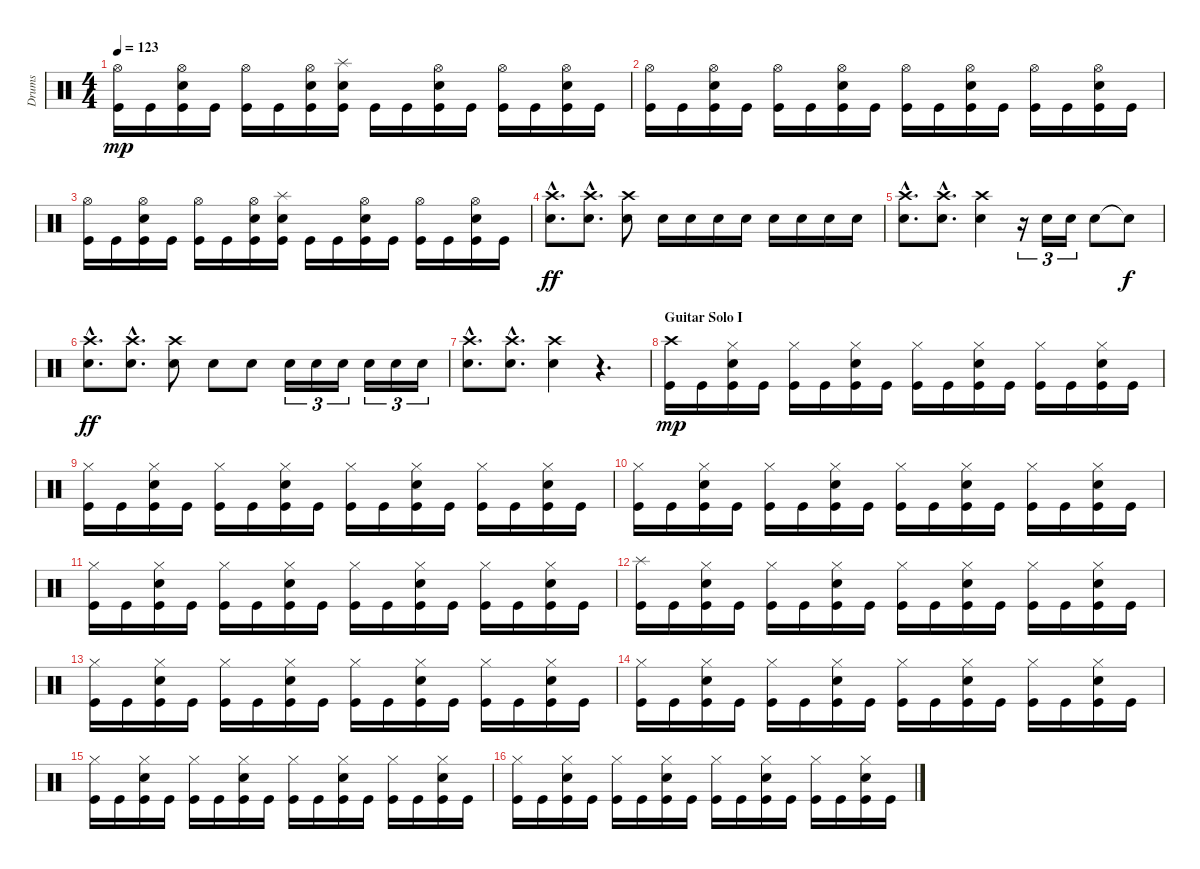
\track ("Drums" "Drums") {instrument percussion}
\staff {score}
\articulation defaults
\ts (4 4)
\tempo 123
\clef neutral
\ks c
("Hi-Hat (open)" "Kick (hit)").16{dy mp} "Kick (hit)".16 ("Hi-Hat (open)" "Electric Snare (hit)" "Kick (hit)").16 "Kick (hit)".16 ("Hi-Hat (open)" "Kick (hit)").16 "Kick (hit)".16 ("Hi-Hat (open)" "Electric Snare (hit)" "Kick (hit)").16 ("Splash (hit)" "Electric Snare (hit)" "Kick (hit)").16 "Kick (hit)".16 "Kick (hit)".16 ("Hi-Hat (open)" "Electric Snare (hit)" "Kick (hit)").16 "Kick (hit)".16 ("Hi-Hat (open)" "Kick (hit)").16 "Kick (hit)".16 ("Hi-Hat (open)" "Electric Snare (hit)" "Kick (hit)").16 "Kick (hit)".16 |
("Hi-Hat (open)" "Kick (hit)").16 "Kick (hit)".16 ("Hi-Hat (open)" "Electric Snare (hit)" "Kick (hit)").16 "Kick (hit)".16 ("Hi-Hat (open)" "Kick (hit)").16 "Kick (hit)".16 ("Hi-Hat (open)" "Electric Snare (hit)" "Kick (hit)").16 "Kick (hit)".16 ("Hi-Hat (open)" "Kick (hit)").16 "Kick (hit)".16 ("Hi-Hat (open)" "Electric Snare (hit)" "Kick (hit)").16 "Kick (hit)".16 ("Hi-Hat (open)" "Kick (hit)").16 "Kick (hit)".16 ("Hi-Hat (open)" "Electric Snare (hit)" "Kick (hit)").16 "Kick (hit)".16 |
("Hi-Hat (open)" "Kick (hit)").16 "Kick (hit)".16 ("Hi-Hat (open)" "Electric Snare (hit)" "Kick (hit)").16 "Kick (hit)".16 ("Hi-Hat (open)" "Kick (hit)").16 "Kick (hit)".16 ("Hi-Hat (open)" "Electric Snare (hit)" "Kick (hit)").16 ("Splash (hit)" "Electric Snare (hit)" "Kick (hit)").16 "Kick (hit)".16 "Kick (hit)".16 ("Hi-Hat (open)" "Electric Snare (hit)" "Kick (hit)").16 "Kick (hit)".16 ("Hi-Hat (open)" "Kick (hit)").16 "Kick (hit)".16 ("Hi-Hat (open)" "Electric Snare (hit)" "Kick (hit)").16 "Kick (hit)".16 |
("Crash high (hit)"{hac} "Electric Snare (hit)"{hac}).8{d dy ff} ("Crash high (hit)"{hac} "Electric Snare (hit)"{hac}).8{d} ("Crash high (hit)" "Electric Snare (hit)").8 "Electric Snare (hit)".16 "Electric Snare (hit)".16 "Electric Snare (hit)".16 "Electric Snare (hit)".16 "Snare (hit) 2".16 "Snare (hit) 2".16 "Snare (hit) 2".16 "Snare (hit) 2".16 |
("Crash high (hit)"{hac} "Electric Snare (hit)"{hac}).8{d} ("Crash high (hit)"{hac} "Electric Snare (hit)"{hac}).8{d} ("Crash high (hit)" "Electric Snare (hit)").4 r.16{tu (3 2)} "Snare (hit) 2".16{tu (3 2)} "Snare (hit) 2".16{tu (3 2)} "Electric Snare (hit)".8 "Snare (hit)"{t}.8{dy f} |
("Crash high (hit)"{hac} "Electric Snare (hit)"{hac}).8{d dy ff} ("Crash high (hit)"{hac} "Electric Snare (hit)"{hac}).8{d} ("Crash high (hit)" "Electric Snare (hit)").8 "Electric Snare (hit)".8 "Electric Snare (hit)".8 "Snare (hit) 2".16{tu (3 2)} "Snare (hit) 2".16{tu (3 2)} "Snare (hit) 2".16{tu (3 2)} "Snare (hit) 2".16{tu (3 2)} "Snare (hit) 2".16{tu (3 2)} "Snare (hit) 2".16{tu (3 2)} |
("Crash high (hit)"{hac} "Electric Snare (hit)"{hac}).8{d} ("Crash high (hit)"{hac} "Electric Snare (hit)"{hac}).8{d} ("Crash high (hit)" "Electric Snare (hit)").4 r.4{d} |
\section ("" "Guitar Solo I")
("Crash high (hit)" "Kick (hit)").16{dy mp} "Kick (hit)".16 ("Hi-Hat (closed)" "Electric Snare (hit)" "Kick (hit)").16 "Kick (hit)".16 ("Hi-Hat (closed)" "Kick (hit)").16 "Kick (hit)".16 ("Hi-Hat (closed)" "Electric Snare (hit)" "Kick (hit)").16 "Kick (hit)".16 ("Hi-Hat (closed)" "Kick (hit)").16 "Kick (hit)".16 ("Hi-Hat (closed)" "Electric Snare (hit)" "Kick (hit)").16 "Kick (hit)".16 ("Hi-Hat (closed)" "Kick (hit)").16 "Kick (hit)".16 ("Hi-Hat (closed)" "Electric Snare (hit)" "Kick (hit)").16 "Kick (hit)".16 |
("Hi-Hat (closed)" "Kick (hit)").16 "Kick (hit)".16 ("Hi-Hat (closed)" "Electric Snare (hit)" "Kick (hit)").16 "Kick (hit)".16 ("Hi-Hat (closed)" "Kick (hit)").16 "Kick (hit)".16 ("Hi-Hat (closed)" "Electric Snare (hit)" "Kick (hit)").16 "Kick (hit)".16 ("Hi-Hat (closed)" "Kick (hit)").16 "Kick (hit)".16 ("Hi-Hat (closed)" "Electric Snare (hit)" "Kick (hit)").16 "Kick (hit)".16 ("Hi-Hat (closed)" "Kick (hit)").16 "Kick (hit)".16 ("Hi-Hat (closed)" "Electric Snare (hit)" "Kick (hit)").16 "Kick (hit)".16 |
("Hi-Hat (closed)" "Kick (hit)").16 "Kick (hit)".16 ("Hi-Hat (closed)" "Electric Snare (hit)" "Kick (hit)").16 "Kick (hit)".16 ("Hi-Hat (closed)" "Kick (hit)").16 "Kick (hit)".16 ("Hi-Hat (closed)" "Electric Snare (hit)" "Kick (hit)").16 "Kick (hit)".16 ("Hi-Hat (closed)" "Kick (hit)").16 "Kick (hit)".16 ("Hi-Hat (closed)" "Electric Snare (hit)" "Kick (hit)").16 "Kick (hit)".16 ("Hi-Hat (closed)" "Kick (hit)").16 "Kick (hit)".16 ("Hi-Hat (closed)" "Electric Snare (hit)" "Kick (hit)").16 "Kick (hit)".16 |
("Hi-Hat (closed)" "Kick (hit)").16 "Kick (hit)".16 ("Hi-Hat (closed)" "Electric Snare (hit)" "Kick (hit)").16 "Kick (hit)".16 ("Hi-Hat (closed)" "Kick (hit)").16 "Kick (hit)".16 ("Hi-Hat (closed)" "Electric Snare (hit)" "Kick (hit)").16 "Kick (hit)".16 ("Hi-Hat (closed)" "Kick (hit)").16 "Kick (hit)".16 ("Hi-Hat (closed)" "Electric Snare (hit)" "Kick (hit)").16 "Kick (hit)".16 ("Hi-Hat (closed)" "Kick (hit)").16 "Kick (hit)".16 ("Hi-Hat (closed)" "Electric Snare (hit)" "Kick (hit)").16 "Kick (hit)".16 |
("Splash (hit)" "Kick (hit)").16 "Kick (hit)".16 ("Hi-Hat (closed)" "Electric Snare (hit)" "Kick (hit)").16 "Kick (hit)".16 ("Hi-Hat (closed)" "Kick (hit)").16 "Kick (hit)".16 ("Hi-Hat (closed)" "Electric Snare (hit)" "Kick (hit)").16 "Kick (hit)".16 ("Hi-Hat (closed)" "Kick (hit)").16 "Kick (hit)".16 ("Hi-Hat (closed)" "Electric Snare (hit)" "Kick (hit)").16 "Kick (hit)".16 ("Hi-Hat (closed)" "Kick (hit)").16 "Kick (hit)".16 ("Hi-Hat (closed)" "Electric Snare (hit)" "Kick (hit)").16 "Kick (hit)".16 |
("Hi-Hat (closed)" "Kick (hit)").16 "Kick (hit)".16 ("Hi-Hat (closed)" "Electric Snare (hit)" "Kick (hit)").16 "Kick (hit)".16 ("Hi-Hat (closed)" "Kick (hit)").16 "Kick (hit)".16 ("Hi-Hat (closed)" "Electric Snare (hit)" "Kick (hit)").16 "Kick (hit)".16 ("Hi-Hat (closed)" "Kick (hit)").16 "Kick (hit)".16 ("Hi-Hat (closed)" "Electric Snare (hit)" "Kick (hit)").16 "Kick (hit)".16 ("Hi-Hat (closed)" "Kick (hit)").16 "Kick (hit)".16 ("Hi-Hat (closed)" "Electric Snare (hit)" "Kick (hit)").16 "Kick (hit)".16 |
("Hi-Hat (closed)" "Kick (hit)").16 "Kick (hit)".16 ("Hi-Hat (closed)" "Electric Snare (hit)" "Kick (hit)").16 "Kick (hit)".16 ("Hi-Hat (closed)" "Kick (hit)").16 "Kick (hit)".16 ("Hi-Hat (closed)" "Electric Snare (hit)" "Kick (hit)").16 "Kick (hit)".16 ("Hi-Hat (closed)" "Kick (hit)").16 "Kick (hit)".16 ("Hi-Hat (closed)" "Electric Snare (hit)" "Kick (hit)").16 "Kick (hit)".16 ("Hi-Hat (closed)" "Kick (hit)").16 "Kick (hit)".16 ("Hi-Hat (closed)" "Electric Snare (hit)" "Kick (hit)").16 "Kick (hit)".16 |
("Hi-Hat (closed)" "Kick (hit)").16 "Kick (hit)".16 ("Hi-Hat (closed)" "Electric Snare (hit)" "Kick (hit)").16 "Kick (hit)".16 ("Hi-Hat (closed)" "Kick (hit)").16 "Kick (hit)".16 ("Hi-Hat (closed)" "Electric Snare (hit)" "Kick (hit)").16 "Kick (hit)".16 ("Hi-Hat (closed)" "Kick (hit)").16 "Kick (hit)".16 ("Hi-Hat (closed)" "Electric Snare (hit)" "Kick (hit)").16 "Kick (hit)".16 ("Hi-Hat (closed)" "Kick (hit)").16 "Kick (hit)".16 ("Hi-Hat (closed)" "Electric Snare (hit)" "Kick (hit)").16 "Kick (hit)".16 |
("Hi-Hat (closed)" "Kick (hit)").16 "Kick (hit)".16 ("Hi-Hat (closed)" "Electric Snare (hit)" "Kick (hit)").16 "Kick (hit)".16 ("Hi-Hat (closed)" "Kick (hit)").16 "Kick (hit)".16 ("Hi-Hat (closed)" "Electric Snare (hit)" "Kick (hit)").16 "Kick (hit)".16 ("Hi-Hat (closed)" "Kick (hit)").16 "Kick (hit)".16 ("Hi-Hat (closed)" "Electric Snare (hit)" "Kick (hit)").16 "Kick (hit)".16 ("Hi-Hat (closed)" "Kick (hit)").16 "Kick (hit)".16 ("Hi-Hat (closed)" "Electric Snare (hit)" "Kick (hit)").16 "Kick (hit)".16
